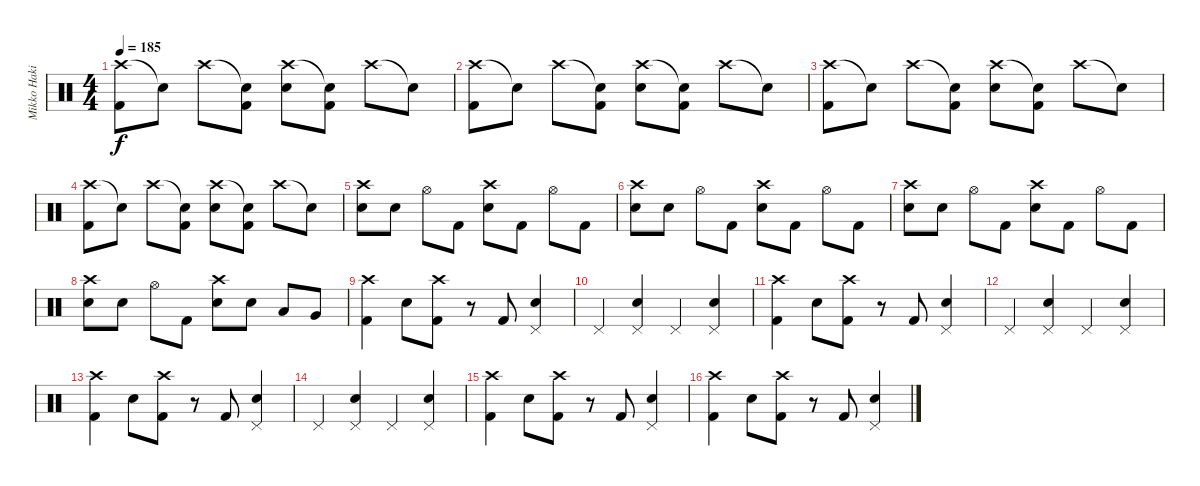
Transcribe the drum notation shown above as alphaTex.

\track ("Mikko Hakila" "Mikko Haki") {instrument percussion}
\staff {score}
\articulation defaults
\ts (4 4)
\tempo 185
\clef neutral
\ks c
("Crash high (hit)" "Kick (hit) 2").8{dy f} "Snare (hit)"{t}.8 "Crash high (hit)".8 ("Snare (hit)"{t} "Kick (hit) 2").8 ("Crash high (hit)" "Snare (hit) 2").8 ("Snare (hit)"{t} "Kick (hit) 2").8 "Crash high (hit)".8 "Snare (hit)"{t}.8 |
("Crash high (hit)" "Kick (hit) 2").8 "Snare (hit)"{t}.8 "Crash high (hit)".8 ("Snare (hit)"{t} "Kick (hit) 2").8 ("Crash high (hit)" "Snare (hit) 2").8 ("Snare (hit)"{t} "Kick (hit) 2").8 "Crash high (hit)".8 "Snare (hit)"{t}.8 |
("Crash high (hit)" "Kick (hit) 2").8 "Snare (hit)"{t}.8 "Crash high (hit)".8 ("Snare (hit)"{t} "Kick (hit) 2").8 ("Crash high (hit)" "Snare (hit) 2").8 ("Snare (hit)"{t} "Kick (hit) 2").8 "Crash high (hit)".8 "Snare (hit)"{t}.8 |
("Crash high (hit)" "Kick (hit) 2").8 "Snare (hit)"{t}.8 "Crash high (hit)".8 ("Snare (hit)"{t} "Kick (hit) 2").8 ("Crash high (hit)" "Snare (hit) 2").8 ("Snare (hit)"{t} "Kick (hit) 2").8 "Crash high (hit)".8 "Snare (hit)"{t}.8 |
("Crash high (hit)" "Snare (hit) 2").8 "Snare (hit) 2".8 "Hi-Hat (open)".8 "Kick (hit) 2".8 ("Crash high (hit)" "Snare (hit) 2").8 "Kick (hit) 2".8 "Hi-Hat (open)".8 "Kick (hit) 2".8 |
("Crash high (hit)" "Snare (hit) 2").8 "Snare (hit) 2".8 "Hi-Hat (open)".8 "Kick (hit) 2".8 ("Crash high (hit)" "Snare (hit) 2").8 "Kick (hit) 2".8 "Hi-Hat (open)".8 "Kick (hit) 2".8 |
("Crash high (hit)" "Snare (hit) 2").8 "Snare (hit) 2".8 "Hi-Hat (open)".8 "Kick (hit) 2".8 ("Crash high (hit)" "Snare (hit) 2").8 "Kick (hit) 2".8 "Hi-Hat (open)".8 "Kick (hit) 2".8 |
("Crash high (hit)" "Snare (hit) 2").8 "Snare (hit) 2".8 "Hi-Hat (open)".8 "Kick (hit) 2".8 ("Crash high (hit)" "Snare (hit) 2").8 "Snare (hit) 2".8 "Low Tom (hit)".8 "Very Low Tom (hit)".8 |
("Crash high (hit)" "Kick (hit) 2").4 "Snare (hit) 2".8 ("Crash high (hit)" "Kick (hit) 2").8 r.8 "Kick (hit) 2".8 ("Pedal Hi-Hat (hit)" "Snare (hit) 2").4 |
"Pedal Hi-Hat (hit)".4 ("Pedal Hi-Hat (hit)" "Snare (hit) 2").4 "Pedal Hi-Hat (hit)".4 ("Pedal Hi-Hat (hit)" "Snare (hit) 2").4 |
("Crash high (hit)" "Kick (hit) 2").4 "Snare (hit) 2".8 ("Crash high (hit)" "Kick (hit) 2").8 r.8 "Kick (hit) 2".8 ("Pedal Hi-Hat (hit)" "Snare (hit) 2").4 |
"Pedal Hi-Hat (hit)".4 ("Pedal Hi-Hat (hit)" "Snare (hit) 2").4 "Pedal Hi-Hat (hit)".4 ("Pedal Hi-Hat (hit)" "Snare (hit) 2").4 |
("Crash high (hit)" "Kick (hit) 2").4 "Snare (hit) 2".8 ("Crash high (hit)" "Kick (hit) 2").8 r.8 "Kick (hit) 2".8 ("Pedal Hi-Hat (hit)" "Snare (hit) 2").4 |
"Pedal Hi-Hat (hit)".4 ("Pedal Hi-Hat (hit)" "Snare (hit) 2").4 "Pedal Hi-Hat (hit)".4 ("Pedal Hi-Hat (hit)" "Snare (hit) 2").4 |
("Crash high (hit)" "Kick (hit) 2").4 "Snare (hit) 2".8 ("Crash high (hit)" "Kick (hit) 2").8 r.8 "Kick (hit) 2".8 ("Pedal Hi-Hat (hit)" "Snare (hit) 2").4 |
("Crash high (hit)" "Kick (hit) 2").4 "Snare (hit) 2".8 ("Crash high (hit)" "Kick (hit) 2").8 r.8 "Kick (hit) 2".8 ("Pedal Hi-Hat (hit)" "Snare (hit) 2").4
